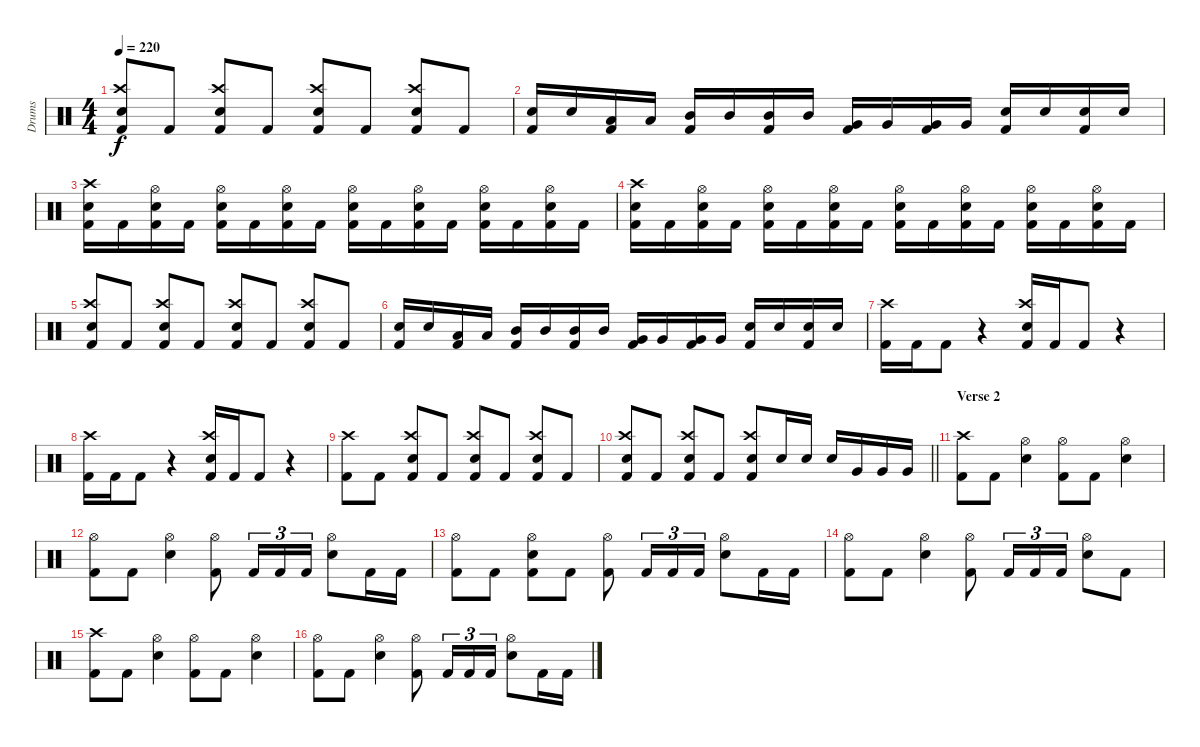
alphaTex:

\track ("Drums" "Drums") {instrument percussion}
\staff {score}
\articulation defaults
\ts (4 4)
\tempo 220
\clef neutral
\ks c
("Electric Snare (hit)" "Crash high (hit)" "Kick (hit) 2").8{dy f} "Kick (hit) 2".8 ("Electric Snare (hit)" "Crash high (hit)" "Kick (hit) 2").8 "Kick (hit) 2".8 ("Electric Snare (hit)" "Crash high (hit)" "Kick (hit) 2").8 "Kick (hit) 2".8 ("Electric Snare (hit)" "Crash high (hit)" "Kick (hit) 2").8 "Kick (hit) 2".8 |
("Electric Snare (hit)" "Kick (hit) 2").16 "Electric Snare (hit)".16 ("Low Tom (hit)" "Kick (hit) 2").16 "Low Tom (hit)".16 ("Mid Tom (hit)" "Kick (hit) 2").16 "Mid Tom (hit)".16 ("Mid Tom (hit)" "Kick (hit) 2").16 "Mid Tom (hit)".16 ("Very Low Tom (hit)" "Kick (hit) 2").16 "Very Low Tom (hit)".16 ("Very Low Tom (hit)" "Kick (hit) 2").16 "Very Low Tom (hit)".16 ("Electric Snare (hit)" "Kick (hit) 2").16 "Electric Snare (hit)".16 ("Electric Snare (hit)" "Kick (hit) 2").16 "Electric Snare (hit)".16 |
("Kick (hit) 2" "Crash high (hit)" "Electric Snare (hit)").16 "Kick (hit) 2".16 ("Kick (hit) 2" "Hi-Hat (open)" "Electric Snare (hit)").16 "Kick (hit) 2".16 ("Kick (hit) 2" "Hi-Hat (open)" "Electric Snare (hit)").16 "Kick (hit) 2".16 ("Kick (hit) 2" "Hi-Hat (open)" "Electric Snare (hit)").16 "Kick (hit) 2".16 ("Kick (hit) 2" "Hi-Hat (open)" "Electric Snare (hit)").16 "Kick (hit) 2".16 ("Kick (hit) 2" "Hi-Hat (open)" "Electric Snare (hit)").16 "Kick (hit) 2".16 ("Kick (hit) 2" "Hi-Hat (open)" "Electric Snare (hit)").16 "Kick (hit) 2".16 ("Kick (hit) 2" "Hi-Hat (open)" "Electric Snare (hit)").16 "Kick (hit) 2".16 |
("Kick (hit) 2" "Crash high (hit)" "Electric Snare (hit)").16 "Kick (hit) 2".16 ("Kick (hit) 2" "Hi-Hat (open)" "Electric Snare (hit)").16 "Kick (hit) 2".16 ("Kick (hit) 2" "Hi-Hat (open)" "Electric Snare (hit)").16 "Kick (hit) 2".16 ("Kick (hit) 2" "Hi-Hat (open)" "Electric Snare (hit)").16 "Kick (hit) 2".16 ("Kick (hit) 2" "Hi-Hat (open)" "Electric Snare (hit)").16 "Kick (hit) 2".16 ("Kick (hit) 2" "Hi-Hat (open)" "Electric Snare (hit)").16 "Kick (hit) 2".16 ("Kick (hit) 2" "Hi-Hat (open)" "Electric Snare (hit)").16 "Kick (hit) 2".16 ("Kick (hit) 2" "Hi-Hat (open)" "Electric Snare (hit)").16 "Kick (hit) 2".16 |
("Electric Snare (hit)" "Crash high (hit)" "Kick (hit) 2").8 "Kick (hit) 2".8 ("Electric Snare (hit)" "Crash high (hit)" "Kick (hit) 2").8 "Kick (hit) 2".8 ("Electric Snare (hit)" "Crash high (hit)" "Kick (hit) 2").8 "Kick (hit) 2".8 ("Electric Snare (hit)" "Crash high (hit)" "Kick (hit) 2").8 "Kick (hit) 2".8 |
("Electric Snare (hit)" "Kick (hit) 2").16 "Electric Snare (hit)".16 ("Low Tom (hit)" "Kick (hit) 2").16 "Low Tom (hit)".16 ("Mid Tom (hit)" "Kick (hit) 2").16 "Mid Tom (hit)".16 ("Mid Tom (hit)" "Kick (hit) 2").16 "Mid Tom (hit)".16 ("Very Low Tom (hit)" "Kick (hit) 2").16 "Very Low Tom (hit)".16 ("Very Low Tom (hit)" "Kick (hit) 2").16 "Very Low Tom (hit)".16 ("Electric Snare (hit)" "Kick (hit) 2").16 "Electric Snare (hit)".16 ("Electric Snare (hit)" "Kick (hit) 2").16 "Electric Snare (hit)".16 |
("Kick (hit) 2" "Crash high (hit)").16 "Kick (hit) 2".16 "Kick (hit) 2".8 r.4 ("Kick (hit) 2" "Crash high (hit)" "Electric Snare (hit)").16 "Kick (hit) 2".16 "Kick (hit) 2".8 r.4 |
("Kick (hit) 2" "Crash high (hit)").16 "Kick (hit) 2".16 "Kick (hit) 2".8 r.4 ("Kick (hit) 2" "Crash high (hit)" "Electric Snare (hit)").16 "Kick (hit) 2".16 "Kick (hit) 2".8 r.4 |
("Crash high (hit)" "Kick (hit) 2").8 "Kick (hit) 2".8 ("Electric Snare (hit)" "Crash high (hit)" "Kick (hit) 2").8 "Kick (hit) 2".8 ("Electric Snare (hit)" "Crash high (hit)" "Kick (hit) 2").8 "Kick (hit) 2".8 ("Electric Snare (hit)" "Crash high (hit)" "Kick (hit) 2").8 "Kick (hit) 2".8 |
\barLineRight lightlight
("Crash high (hit)" "Electric Snare (hit)" "Kick (hit) 2").8 "Kick (hit) 2".8 ("Crash high (hit)" "Kick (hit) 2" "Electric Snare (hit)").8 "Kick (hit) 2".8 ("Kick (hit) 2" "Electric Snare (hit)" "Crash high (hit)").8 "Electric Snare (hit)".16 "Electric Snare (hit)".16 "Electric Snare (hit)".16 "Very Low Tom (hit)".16 "Very Low Tom (hit)".16 "Very Low Tom (hit)".16 |
\section ("" "Verse 2")
("Kick (hit) 2" "Crash high (hit)").8 "Kick (hit) 2".8 ("Electric Snare (hit)" "Hi-Hat (open)").4 ("Hi-Hat (open)" "Kick (hit) 2").8 "Kick (hit) 2".8 ("Hi-Hat (open)" "Electric Snare (hit)").4 |
("Kick (hit) 2" "Hi-Hat (open)").8 "Kick (hit) 2".8 ("Electric Snare (hit)" "Hi-Hat (open)").4 ("Hi-Hat (open)" "Kick (hit) 2").8 "Kick (hit) 2".16{tu (3 2)} "Kick (hit) 2".16{tu (3 2)} "Kick (hit) 2".16{tu (3 2)} ("Hi-Hat (open)" "Electric Snare (hit)").8 "Kick (hit) 2".16 "Kick (hit) 2".16 |
("Kick (hit) 2" "Hi-Hat (open)").8 "Kick (hit) 2".8 ("Electric Snare (hit)" "Kick (hit) 2" "Hi-Hat (open)").8 "Kick (hit) 2".8 ("Hi-Hat (open)" "Kick (hit) 2").8 "Kick (hit) 2".16{tu (3 2)} "Kick (hit) 2".16{tu (3 2)} "Kick (hit) 2".16{tu (3 2)} ("Electric Snare (hit)" "Hi-Hat (open)").8 "Kick (hit) 2".16 "Kick (hit) 2".16 |
("Kick (hit) 2" "Hi-Hat (open)").8 "Kick (hit) 2".8 ("Electric Snare (hit)" "Hi-Hat (open)").4 ("Hi-Hat (open)" "Kick (hit) 2").8 "Kick (hit) 2".16{tu (3 2)} "Kick (hit) 2".16{tu (3 2)} "Kick (hit) 2".16{tu (3 2)} ("Hi-Hat (open)" "Electric Snare (hit)").8 "Kick (hit) 2".8 |
("Kick (hit) 2" "Crash high (hit)").8 "Kick (hit) 2".8 ("Electric Snare (hit)" "Hi-Hat (open)").4 ("Hi-Hat (open)" "Kick (hit) 2").8 "Kick (hit) 2".8 ("Hi-Hat (open)" "Electric Snare (hit)").4 |
("Kick (hit) 2" "Hi-Hat (open)").8 "Kick (hit) 2".8 ("Electric Snare (hit)" "Hi-Hat (open)").4 ("Hi-Hat (open)" "Kick (hit) 2").8 "Kick (hit) 2".16{tu (3 2)} "Kick (hit) 2".16{tu (3 2)} "Kick (hit) 2".16{tu (3 2)} ("Hi-Hat (open)" "Electric Snare (hit)").8 "Kick (hit) 2".16 "Kick (hit) 2".16
